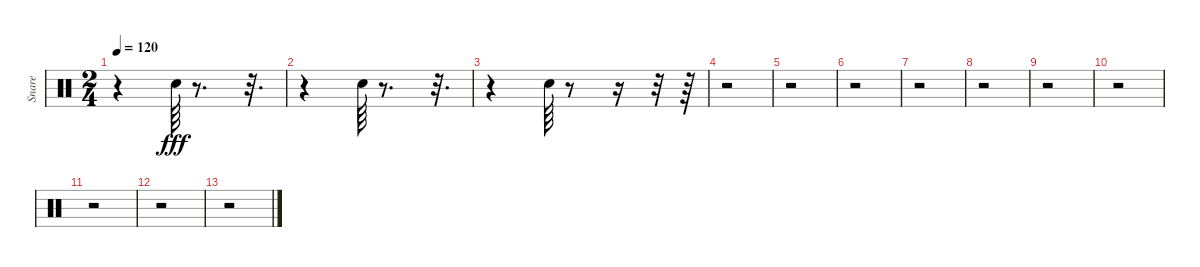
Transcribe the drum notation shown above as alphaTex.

\track ("Snare" "Snare") {instrument percussion}
\staff {score}
\articulation defaults
\ts (2 4)
\tempo 120
\clef neutral
\ks c
r.4{dy fff} "Snare (hit) 2".64 r.8{d} r.32{d} |
r.4 "Snare (hit) 2".64 r.8{d} r.32{d} |
r.4 "Snare (hit) 2".64 r.8 r.16 r.32 r.64 |
r.2 |
r.2 |
r.2 |
r.2 |
r.2 |
r.2 |
r.2 |
r.2 |
r.2 |
r.2
